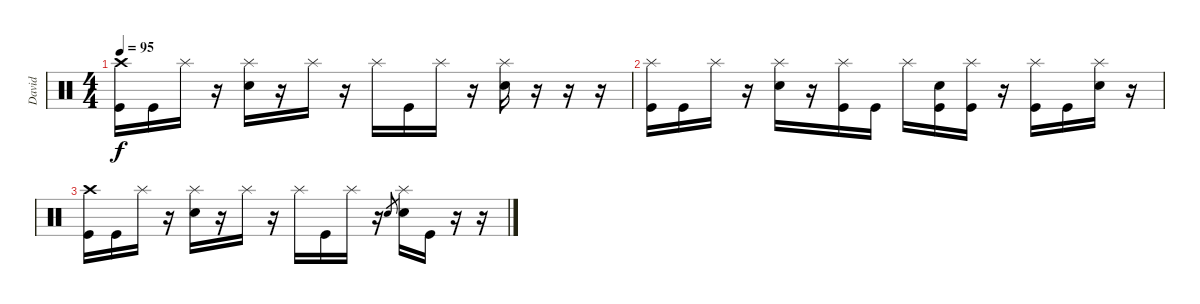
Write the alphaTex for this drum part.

\track ("David" "David") {instrument percussion}
\staff {score}
\articulation defaults
\ts (4 4)
\tempo 95
\clef neutral
\ks c
("Crash high (hit)" "Kick (hit)").16{dy f} "Kick (hit)".16 "Splash (hit)".16 r.16 ("Splash (hit)" "Electric Snare (hit)").16 r.16 "Splash (hit)".16 r.16 "Splash (hit)".16 "Kick (hit)".16 "Splash (hit)".16 r.16 ("Splash (hit)" "Electric Snare (hit)").16 r.16 r.16 r.16 |
("Splash (hit)" "Kick (hit)").16 "Kick (hit)".16 "Splash (hit)".16 r.16 ("Splash (hit)" "Electric Snare (hit)").16 r.16 ("Splash (hit)" "Kick (hit)").16 "Kick (hit)".16 "Splash (hit)".16 ("Electric Snare (hit)" "Kick (hit)").16 ("Splash (hit)" "Kick (hit)").16 r.16 ("Splash (hit)" "Kick (hit)").16 "Kick (hit)".16 ("Splash (hit)" "Electric Snare (hit)").16 r.16 |
("Crash high (hit)" "Kick (hit)").16 "Kick (hit)".16 "Splash (hit)".16 r.16 ("Splash (hit)" "Electric Snare (hit)").16 r.16 "Splash (hit)".16 r.16 "Splash (hit)".16 "Kick (hit)".16 "Splash (hit)".16 r.16 "Electric Snare (hit)".8{gr} ("Splash (hit)" "Electric Snare (hit)").16 "Kick (hit)".16 r.16 r.16
